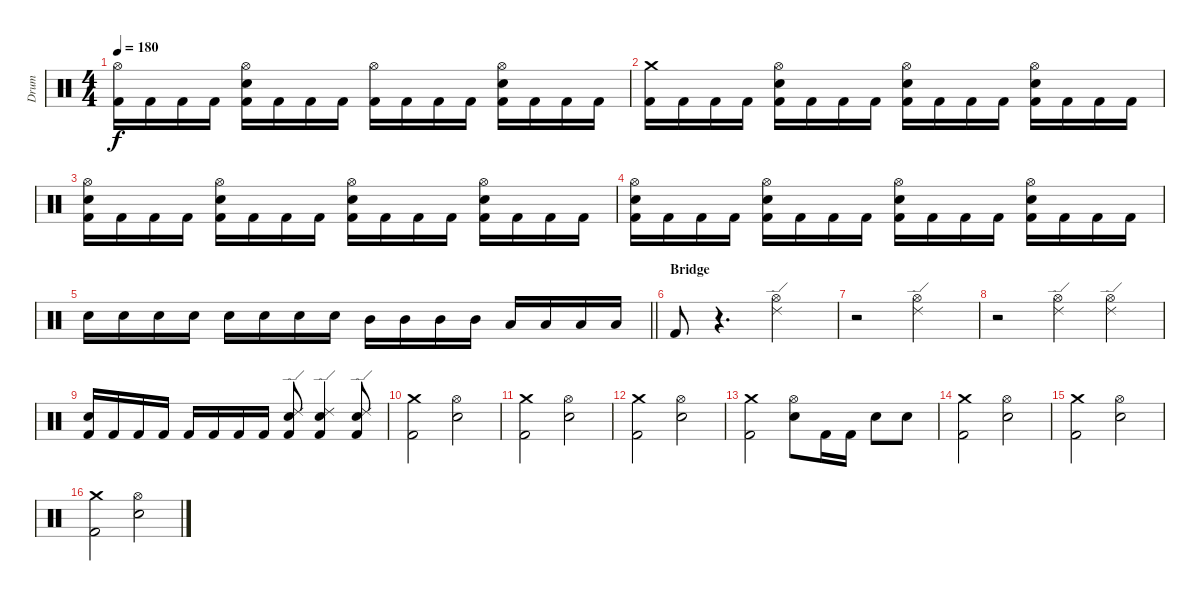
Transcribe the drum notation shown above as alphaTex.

\track ("Drum" "Drum") {instrument percussion}
\staff
\articulation defaults
\ts (4 4)
\tempo 180
\clef neutral
\ks c
("Hi-Hat (open)" "Kick (hit) 2").16{dy f} "Kick (hit) 2".16 "Kick (hit) 2".16 "Kick (hit) 2".16 ("Hi-Hat (open)" "Electric Snare (hit)" "Kick (hit) 2").16 "Kick (hit) 2".16 "Kick (hit) 2".16 "Kick (hit) 2".16 ("Hi-Hat (open)" "Kick (hit) 2").16 "Kick (hit) 2".16 "Kick (hit) 2".16 "Kick (hit) 2".16 ("Hi-Hat (open)" "Electric Snare (hit)" "Kick (hit) 2").16 "Kick (hit) 2".16 "Kick (hit) 2".16 "Kick (hit) 2".16 |
("Crash medium (hit)" "Kick (hit) 2").16 "Kick (hit) 2".16 "Kick (hit) 2".16 "Kick (hit) 2".16 ("Hi-Hat (open)" "Electric Snare (hit)" "Kick (hit) 2").16 "Kick (hit) 2".16 "Kick (hit) 2".16 "Kick (hit) 2".16 ("Hi-Hat (open)" "Electric Snare (hit)" "Kick (hit) 2").16 "Kick (hit) 2".16 "Kick (hit) 2".16 "Kick (hit) 2".16 ("Hi-Hat (open)" "Electric Snare (hit)" "Kick (hit) 2").16 "Kick (hit) 2".16 "Kick (hit) 2".16 "Kick (hit) 2".16 |
("Hi-Hat (open)" "Electric Snare (hit)" "Kick (hit) 2").16 "Kick (hit) 2".16 "Kick (hit) 2".16 "Kick (hit) 2".16 ("Hi-Hat (open)" "Electric Snare (hit)" "Kick (hit) 2").16 "Kick (hit) 2".16 "Kick (hit) 2".16 "Kick (hit) 2".16 ("Hi-Hat (open)" "Electric Snare (hit)" "Kick (hit) 2").16 "Kick (hit) 2".16 "Kick (hit) 2".16 "Kick (hit) 2".16 ("Hi-Hat (open)" "Electric Snare (hit)" "Kick (hit) 2").16 "Kick (hit) 2".16 "Kick (hit) 2".16 "Kick (hit) 2".16 |
("Hi-Hat (open)" "Electric Snare (hit)" "Kick (hit) 2").16 "Kick (hit) 2".16 "Kick (hit) 2".16 "Kick (hit) 2".16 ("Hi-Hat (open)" "Electric Snare (hit)" "Kick (hit) 2").16 "Kick (hit) 2".16 "Kick (hit) 2".16 "Kick (hit) 2".16 ("Hi-Hat (open)" "Electric Snare (hit)" "Kick (hit) 2").16 "Kick (hit) 2".16 "Kick (hit) 2".16 "Kick (hit) 2".16 ("Hi-Hat (open)" "Electric Snare (hit)" "Kick (hit) 2").16 "Kick (hit) 2".16 "Kick (hit) 2".16 "Kick (hit) 2".16 |
\barLineRight lightlight "Electric Snare (hit)".16 "Electric Snare (hit)".16 "Electric Snare (hit)".16 "Electric Snare (hit)".16 "Electric Snare (hit)".16 "Electric Snare (hit)".16 "Electric Snare (hit)".16 "Electric Snare (hit)".16 "Mid Tom (hit)".16 "Mid Tom (hit)".16 "Mid Tom (hit)".16 "Mid Tom (hit)".16 "Low Tom (hit)".16 "Low Tom (hit)".16 "Low Tom (hit)".16 "Low Tom (hit)".16
|
\section ("" "Bridge")
"Kick (hit) 2".8 r.4{d} ("Ride (edge) 2" "Hi-Hat (open)").2 |
r.2 ("Ride (edge) 2" "Hi-Hat (open)").2 |
r.2 ("Ride (edge) 2" "Hi-Hat (open)").4 ("Ride (edge) 2" "Hi-Hat (open)").4 |
("Electric Snare (hit)" "Kick (hit) 2").16 "Kick (hit) 2".16 "Kick (hit) 2".16 "Kick (hit) 2".16 "Kick (hit) 2".16 "Kick (hit) 2".16 "Kick (hit) 2".16 "Kick (hit) 2".16 ("Ride (edge) 2" "Electric Snare (hit)" "Kick (hit) 2").8 ("Ride (edge) 2" "Electric Snare (hit)" "Kick (hit) 2").4 ("Ride (edge) 2" "Electric Snare (hit)" "Kick (hit) 2").8 |
("Crash medium (hit)" "Kick (hit) 2").2 ("Hi-Hat (open)" "Electric Snare (hit)").2 |
("Crash medium (hit)" "Kick (hit) 2").2 ("Hi-Hat (open)" "Electric Snare (hit)").2 |
("Crash medium (hit)" "Kick (hit) 2").2 ("Hi-Hat (open)" "Electric Snare (hit)").2 |
("Crash medium (hit)" "Kick (hit) 2").2 ("Hi-Hat (open)" "Electric Snare (hit)").8 "Kick (hit) 2".16 "Kick (hit) 2".16 "Electric Snare (hit)".8 "Electric Snare (hit)".8 |
("Crash medium (hit)" "Kick (hit) 2").2 ("Hi-Hat (open)" "Electric Snare (hit)").2 |
("Crash medium (hit)" "Kick (hit) 2").2 ("Hi-Hat (open)" "Electric Snare (hit)").2 |
("Crash medium (hit)" "Kick (hit) 2").2 ("Hi-Hat (open)" "Electric Snare (hit)").2
